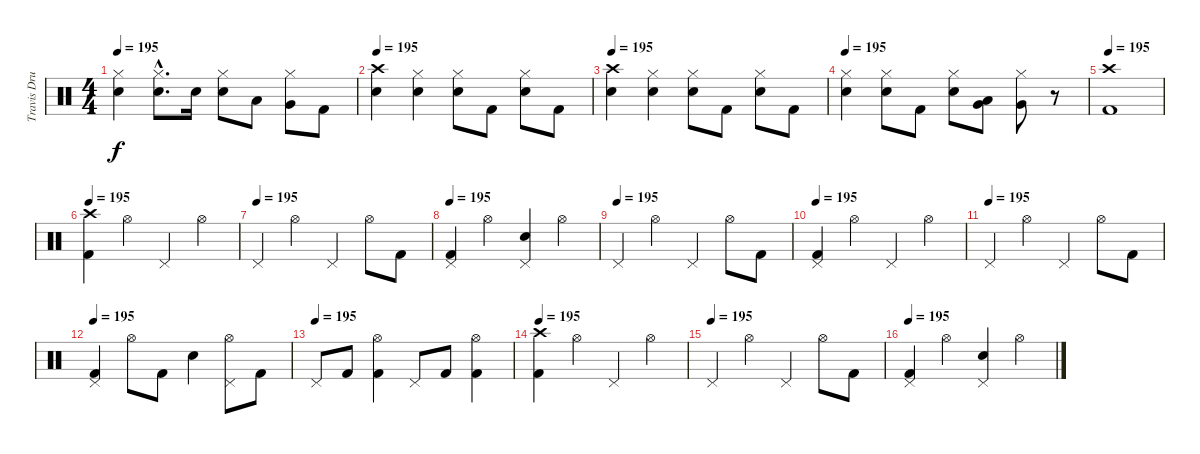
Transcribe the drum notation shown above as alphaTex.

\track ("Travis Drums" "Travis Dru") {instrument percussion}
\staff {score}
\articulation defaults
\ts (4 4)
\tempo 195
\clef neutral
\ks c
("Hi-Hat (closed)" "Electric Snare (hit)").4{dy f} ("Hi-Hat (closed)"{hac} "Electric Snare (hit)"{hac}).8{d} "Electric Snare (hit)".16 ("Hi-Hat (closed)" "Electric Snare (hit)").8 "Low Tom (hit)".8 ("Very Low Tom (hit)" "Hi-Hat (closed)").8 "Kick (hit) 2".8 |
\tempo 195
("Crash high (hit)" "Electric Snare (hit)").4 ("Hi-Hat (closed)" "Electric Snare (hit)").4 ("Hi-Hat (closed)" "Electric Snare (hit)").8 "Kick (hit) 2".8 ("Hi-Hat (closed)" "Electric Snare (hit)").8 "Kick (hit) 2".8 |
\tempo 195
("Crash high (hit)" "Electric Snare (hit)").4 ("Hi-Hat (closed)" "Electric Snare (hit)").4 ("Hi-Hat (closed)" "Electric Snare (hit)").8 "Kick (hit) 2".8 ("Hi-Hat (closed)" "Electric Snare (hit)").8 "Kick (hit) 2".8 |
\tempo 195
("Hi-Hat (closed)" "Electric Snare (hit)").4 ("Hi-Hat (closed)" "Electric Snare (hit)").8 "Kick (hit) 2".8 ("Hi-Hat (closed)" "Electric Snare (hit)").8 ("Low Tom (hit)" "Very Low Tom (hit)").8 ("Very Low Tom (hit)" "Hi-Hat (closed)").8 r.8 |
\tempo 195
("Crash high (hit)" "Kick (hit) 2").1 |
\tempo 195
("Crash high (hit)" "Kick (hit) 2").4 "Hi-Hat (open)".4 "Pedal Hi-Hat (hit)".4 "Hi-Hat (open)".4 |
\tempo (195)
"Pedal Hi-Hat (hit)".4 "Hi-Hat (open)".4 "Pedal Hi-Hat (hit)".4 "Hi-Hat (open)".8 "Kick (hit) 2".8 |
\tempo 195
("Pedal Hi-Hat (hit)" "Kick (hit) 2").4 "Hi-Hat (open)".4 ("Pedal Hi-Hat (hit)" "Electric Snare (hit)").4 "Hi-Hat (open)".4 |
\tempo (195)
"Pedal Hi-Hat (hit)".4 "Hi-Hat (open)".4 "Pedal Hi-Hat (hit)".4 "Hi-Hat (open)".8 "Kick (hit) 2".8 |
\tempo 195
("Pedal Hi-Hat (hit)" "Kick (hit) 2").4 "Hi-Hat (open)".4 "Pedal Hi-Hat (hit)".4 "Hi-Hat (open)".4 |
\tempo (195)
"Pedal Hi-Hat (hit)".4 "Hi-Hat (open)".4 "Pedal Hi-Hat (hit)".4 "Hi-Hat (open)".8 "Kick (hit) 2".8 |
\tempo 195
("Pedal Hi-Hat (hit)" "Kick (hit) 2").4 "Hi-Hat (open)".8 "Kick (hit) 2".8 "Electric Snare (hit)".4 ("Pedal Hi-Hat (hit)" "Hi-Hat (open)").8 "Kick (hit) 2".8 |
\tempo (195)
"Pedal Hi-Hat (hit)".8 "Kick (hit) 2".8 ("Hi-Hat (open)" "Kick (hit) 2").4 "Pedal Hi-Hat (hit)".8 "Kick (hit) 2".8 ("Hi-Hat (open)" "Kick (hit) 2").4 |
\tempo 195
("Crash high (hit)" "Kick (hit) 2").4 "Hi-Hat (open)".4 "Pedal Hi-Hat (hit)".4 "Hi-Hat (open)".4 |
\tempo (195)
"Pedal Hi-Hat (hit)".4 "Hi-Hat (open)".4 "Pedal Hi-Hat (hit)".4 "Hi-Hat (open)".8 "Kick (hit) 2".8 |
\tempo 195
("Pedal Hi-Hat (hit)" "Kick (hit) 2").4 "Hi-Hat (open)".4 ("Pedal Hi-Hat (hit)" "Electric Snare (hit)").4 "Hi-Hat (open)".4
